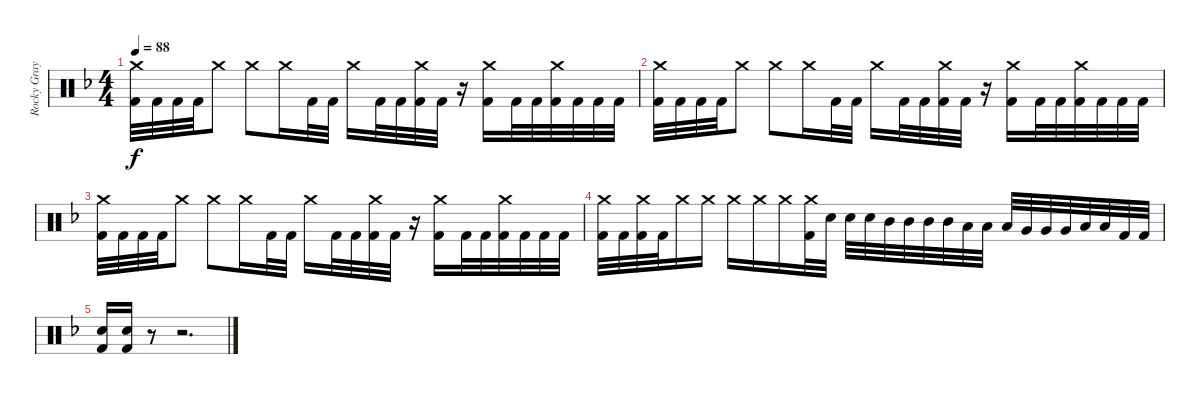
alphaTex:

\track ("Rocky Gray" "Rocky Gray") {instrument percussion}
\staff {score}
\articulation defaults
\ts (4 4)
\tempo 88
\clef neutral
\ks f
("Crash medium (hit)" "Kick (hit) 2").32{dy f} "Kick (hit) 2".32 "Kick (hit) 2".32 "Kick (hit) 2".32 "Crash medium (hit)".8 "Crash medium (hit)".8 "Crash medium (hit)".16 "Kick (hit) 2".32 "Kick (hit) 2".32 "Crash medium (hit)".16 "Kick (hit) 2".32 "Kick (hit) 2".32 ("Crash medium (hit)" "Kick (hit) 2").32 "Kick (hit) 2".32 r.16 ("Crash medium (hit)" "Kick (hit) 2").16 "Kick (hit) 2".32 "Kick (hit) 2".32 ("Crash medium (hit)" "Kick (hit) 2").32 "Kick (hit) 2".32 "Kick (hit) 2".32 "Kick (hit) 2".32 |
("Crash medium (hit)" "Kick (hit) 2").32 "Kick (hit) 2".32 "Kick (hit) 2".32 "Kick (hit) 2".32 "Crash medium (hit)".8 "Crash medium (hit)".8 "Crash medium (hit)".16 "Kick (hit) 2".32 "Kick (hit) 2".32 "Crash medium (hit)".16 "Kick (hit) 2".32 "Kick (hit) 2".32 ("Crash medium (hit)" "Kick (hit) 2").32 "Kick (hit) 2".32 r.16 ("Crash medium (hit)" "Kick (hit) 2").16 "Kick (hit) 2".32 "Kick (hit) 2".32 ("Crash medium (hit)" "Kick (hit) 2").32 "Kick (hit) 2".32 "Kick (hit) 2".32 "Kick (hit) 2".32 |
("Crash medium (hit)" "Kick (hit) 2").32 "Kick (hit) 2".32 "Kick (hit) 2".32 "Kick (hit) 2".32 "Crash medium (hit)".8 "Crash medium (hit)".8 "Crash medium (hit)".16 "Kick (hit) 2".32 "Kick (hit) 2".32 "Crash medium (hit)".16 "Kick (hit) 2".32 "Kick (hit) 2".32 ("Crash medium (hit)" "Kick (hit) 2").32 "Kick (hit) 2".32 r.16 ("Crash medium (hit)" "Kick (hit) 2").16 "Kick (hit) 2".32 "Kick (hit) 2".32 ("Crash medium (hit)" "Kick (hit) 2").32 "Kick (hit) 2".32 "Kick (hit) 2".32 "Kick (hit) 2".32 |
("Crash medium (hit)" "Kick (hit) 2").32 "Kick (hit) 2".32 ("Crash medium (hit)" "Kick (hit) 2").32 "Kick (hit) 2".32 "Crash medium (hit)".16 "Crash medium (hit)".16 "Crash medium (hit)".16 "Crash medium (hit)".16 "Crash medium (hit)".16 ("Crash medium (hit)" "Kick (hit) 2").32 "Snare (hit) 2".32 "Snare (hit) 2".32 "Snare (hit) 2".32 "Mid Tom (hit)".32 "Mid Tom (hit)".32 "Mid Tom (hit)".32 "Mid Tom (hit)".32 "Low Tom (hit)".32 "Low Tom (hit)".32 "Low Tom (hit)".32 "Very Low Tom (hit)".32 "Very Low Tom (hit)".32 "Very Low Tom (hit)".32 "Low Floor Tom (hit)".32 "Low Floor Tom (hit)".32 "Kick (hit) 2".32 "Kick (hit) 2".32 |
("Snare (hit) 2" "Kick (hit) 2").16 ("Snare (hit) 2" "Kick (hit) 2").16 r.8 r.2{d}
